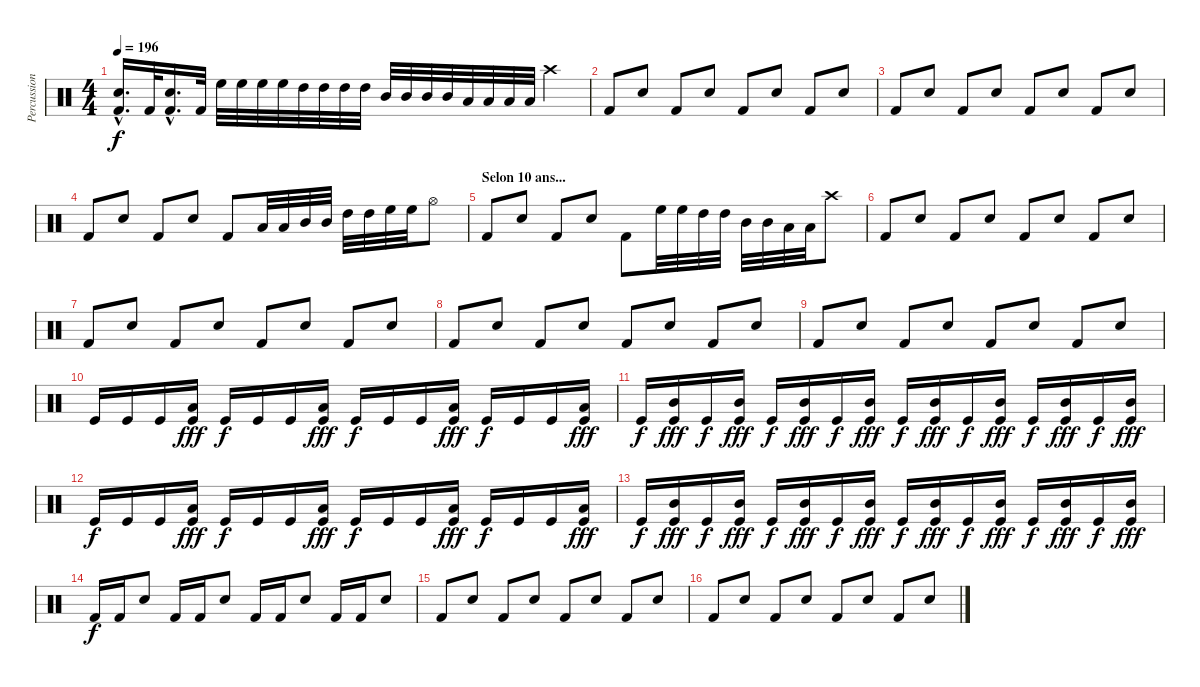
\track ("Percussions" "Percussion") {instrument percussion}
\staff {score}
\articulation defaults
\ts (4 4)
\tempo 196
\clef neutral
\ks c
("Snare (hit) 2"{hac} "Kick (hit) 2"{hac}).16{d dy f} "Kick (hit) 2".32 ("Snare (hit) 2"{hac} "Kick (hit) 2"{hac}).16{d} "Kick (hit) 2".32 "High Floor Tom (hit)".32 "High Floor Tom (hit)".32 "High Floor Tom (hit)".32 "High Floor Tom (hit)".32 "High Tom (hit)".32 "High Tom (hit)".32 "High Tom (hit)".32 "High Tom (hit)".32 "Mid Tom (hit)".32 "Mid Tom (hit)".32 "Mid Tom (hit)".32 "Mid Tom (hit)".32 "Low Tom (hit)".32 "Low Tom (hit)".32 "Low Tom (hit)".32 "Low Tom (hit)".32 "Crash high (hit)".4 |
"Kick (hit) 2".8 "Snare (hit) 2".8 "Kick (hit) 2".8 "Snare (hit) 2".8 "Kick (hit) 2".8 "Snare (hit) 2".8 "Kick (hit) 2".8 "Snare (hit) 2".8 |
"Kick (hit) 2".8 "Snare (hit) 2".8 "Kick (hit) 2".8 "Snare (hit) 2".8 "Kick (hit) 2".8 "Snare (hit) 2".8 "Kick (hit) 2".8 "Snare (hit) 2".8 |
"Kick (hit) 2".8 "Snare (hit) 2".8 "Kick (hit) 2".8 "Snare (hit) 2".8 "Kick (hit) 2".8 "Low Tom (hit)".32 "Low Tom (hit)".32 "Mid Tom (hit)".32 "Mid Tom (hit)".32 "High Tom (hit)".32 "High Tom (hit)".32 "High Floor Tom (hit)".32 "High Floor Tom (hit)".32 "Hi-Hat (open)".8 |
\section ("" "Selon 10 ans...")
"Kick (hit) 2".8 "Snare (hit) 2".8 "Kick (hit) 2".8 "Snare (hit) 2".8 "Kick (hit) 2".8 "High Floor Tom (hit)".32 "High Floor Tom (hit)".32 "High Tom (hit)".32 "High Tom (hit)".32 "Mid Tom (hit)".32 "Mid Tom (hit)".32 "Low Tom (hit)".32 "Low Tom (hit)".32 "Crash high (hit)".8 |
"Kick (hit) 2".8 "Snare (hit) 2".8 "Kick (hit) 2".8 "Snare (hit) 2".8 "Kick (hit) 2".8 "Snare (hit) 2".8 "Kick (hit) 2".8 "Snare (hit) 2".8 |
"Kick (hit) 2".8 "Snare (hit) 2".8 "Kick (hit) 2".8 "Snare (hit) 2".8 "Kick (hit) 2".8 "Snare (hit) 2".8 "Kick (hit) 2".8 "Snare (hit) 2".8 |
"Kick (hit) 2".8 "Snare (hit) 2".8 "Kick (hit) 2".8 "Snare (hit) 2".8 "Kick (hit) 2".8 "Snare (hit) 2".8 "Kick (hit) 2".8 "Snare (hit) 2".8 |
"Kick (hit) 2".8 "Snare (hit) 2".8 "Kick (hit) 2".8 "Snare (hit) 2".8 "Kick (hit) 2".8 "Snare (hit) 2".8 "Kick (hit) 2".8 "Snare (hit) 2".8 |
"Kick (hit)".16 "Kick (hit)".16 "Kick (hit)".16 ("Low Tom (hit)" "Kick (hit)").16{dy fff} "Kick (hit)".16{dy f} "Kick (hit)".16 "Kick (hit)".16 ("Low Tom (hit)" "Kick (hit)").16{dy fff} "Kick (hit)".16{dy f} "Kick (hit)".16 "Kick (hit)".16 ("Low Tom (hit)" "Kick (hit)").16{dy fff} "Kick (hit)".16{dy f} "Kick (hit)".16 "Kick (hit)".16 ("Low Tom (hit)" "Kick (hit)").16{dy fff} |
"Kick (hit)".16{dy f} ("Mid Tom (hit)" "Kick (hit)").16{dy fff} "Kick (hit)".16{dy f} ("Mid Tom (hit)" "Kick (hit)").16{dy fff} "Kick (hit)".16{dy f} ("Mid Tom (hit)" "Kick (hit)").16{dy fff} "Kick (hit)".16{dy f} ("Mid Tom (hit)" "Kick (hit)").16{dy fff} "Kick (hit)".16{dy f} ("Mid Tom (hit)" "Kick (hit)").16{dy fff} "Kick (hit)".16{dy f} ("Mid Tom (hit)" "Kick (hit)").16{dy fff} "Kick (hit)".16{dy f} ("Mid Tom (hit)" "Kick (hit)").16{dy fff} "Kick (hit)".16{dy f} ("Mid Tom (hit)" "Kick (hit)").16{dy fff} |
"Kick (hit)".16{dy f} "Kick (hit)".16 "Kick (hit)".16 ("Low Tom (hit)" "Kick (hit)").16{dy fff} "Kick (hit)".16{dy f} "Kick (hit)".16 "Kick (hit)".16 ("Low Tom (hit)" "Kick (hit)").16{dy fff} "Kick (hit)".16{dy f} "Kick (hit)".16 "Kick (hit)".16 ("Low Tom (hit)" "Kick (hit)").16{dy fff} "Kick (hit)".16{dy f} "Kick (hit)".16 "Kick (hit)".16 ("Low Tom (hit)" "Kick (hit)").16{dy fff} |
"Kick (hit)".16{dy f} ("Mid Tom (hit)" "Kick (hit)").16{dy fff} "Kick (hit)".16{dy f} ("Mid Tom (hit)" "Kick (hit)").16{dy fff} "Kick (hit)".16{dy f} ("Mid Tom (hit)" "Kick (hit)").16{dy fff} "Kick (hit)".16{dy f} ("Mid Tom (hit)" "Kick (hit)").16{dy fff} "Kick (hit)".16{dy f} ("Mid Tom (hit)" "Kick (hit)").16{dy fff} "Kick (hit)".16{dy f} ("Mid Tom (hit)" "Kick (hit)").16{dy fff} "Kick (hit)".16{dy f} ("Mid Tom (hit)" "Kick (hit)").16{dy fff} "Kick (hit)".16{dy f} ("Mid Tom (hit)" "Kick (hit)").16{dy fff} |
"Kick (hit) 2".16{dy f} "Kick (hit) 2".16 "Snare (hit) 2".8 "Kick (hit) 2".16 "Kick (hit) 2".16 "Snare (hit) 2".8 "Kick (hit) 2".16 "Kick (hit) 2".16 "Snare (hit) 2".8 "Kick (hit) 2".16 "Kick (hit) 2".16 "Snare (hit) 2".8 |
"Kick (hit) 2".8 "Snare (hit) 2".8 "Kick (hit) 2".8 "Snare (hit) 2".8 "Kick (hit) 2".8 "Snare (hit) 2".8 "Kick (hit) 2".8 "Snare (hit) 2".8 |
"Kick (hit) 2".8 "Snare (hit) 2".8 "Kick (hit) 2".8 "Snare (hit) 2".8 "Kick (hit) 2".8 "Snare (hit) 2".8 "Kick (hit) 2".8 "Snare (hit) 2".8
